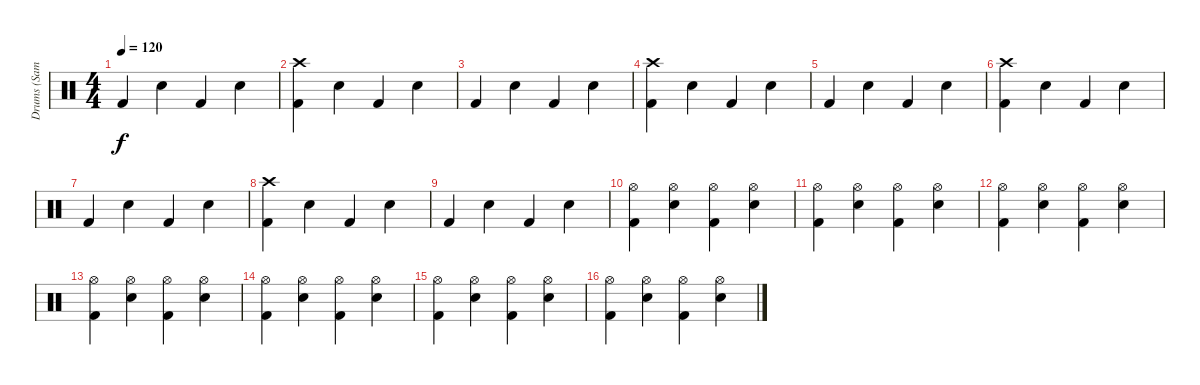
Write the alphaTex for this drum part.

\track ("Drums (Sami Karppinen)" "Drums (Sam") {instrument percussion}
\staff {score}
\articulation defaults
\ts (4 4)
\tempo 120
\clef neutral
\ks c "Kick (hit) 2".4{dy f} "Electric Snare (hit)".4 "Kick (hit) 2".4 "Electric Snare (hit)".4
|
("Crash high (hit)" "Kick (hit) 2").4 "Electric Snare (hit)".4 "Kick (hit) 2".4 "Electric Snare (hit)".4 |
"Kick (hit) 2".4 "Electric Snare (hit)".4 "Kick (hit) 2".4 "Electric Snare (hit)".4 |
("Crash high (hit)" "Kick (hit) 2").4 "Electric Snare (hit)".4 "Kick (hit) 2".4 "Electric Snare (hit)".4 |
"Kick (hit) 2".4 "Electric Snare (hit)".4 "Kick (hit) 2".4 "Electric Snare (hit)".4 |
("Crash high (hit)" "Kick (hit) 2").4 "Electric Snare (hit)".4 "Kick (hit) 2".4 "Electric Snare (hit)".4 |
"Kick (hit) 2".4 "Electric Snare (hit)".4 "Kick (hit) 2".4 "Electric Snare (hit)".4 |
("Crash high (hit)" "Kick (hit) 2").4 "Electric Snare (hit)".4 "Kick (hit) 2".4 "Electric Snare (hit)".4 |
"Kick (hit) 2".4 "Electric Snare (hit)".4 "Kick (hit) 2".4 "Electric Snare (hit)".4 |
("Hi-Hat (open)" "Kick (hit) 2").4 ("Hi-Hat (open)" "Electric Snare (hit)").4 ("Hi-Hat (open)" "Kick (hit) 2").4 ("Hi-Hat (open)" "Electric Snare (hit)").4 |
("Hi-Hat (open)" "Kick (hit) 2").4 ("Hi-Hat (open)" "Electric Snare (hit)").4 ("Hi-Hat (open)" "Kick (hit) 2").4 ("Hi-Hat (open)" "Electric Snare (hit)").4 |
("Hi-Hat (open)" "Kick (hit) 2").4 ("Hi-Hat (open)" "Electric Snare (hit)").4 ("Hi-Hat (open)" "Kick (hit) 2").4 ("Hi-Hat (open)" "Electric Snare (hit)").4 |
("Hi-Hat (open)" "Kick (hit) 2").4 ("Hi-Hat (open)" "Electric Snare (hit)").4 ("Hi-Hat (open)" "Kick (hit) 2").4 ("Hi-Hat (open)" "Electric Snare (hit)").4 |
("Hi-Hat (open)" "Kick (hit) 2").4 ("Hi-Hat (open)" "Electric Snare (hit)").4 ("Hi-Hat (open)" "Kick (hit) 2").4 ("Hi-Hat (open)" "Electric Snare (hit)").4 |
("Hi-Hat (open)" "Kick (hit) 2").4 ("Hi-Hat (open)" "Electric Snare (hit)").4 ("Hi-Hat (open)" "Kick (hit) 2").4 ("Hi-Hat (open)" "Electric Snare (hit)").4 |
("Hi-Hat (open)" "Kick (hit) 2").4 ("Hi-Hat (open)" "Electric Snare (hit)").4 ("Hi-Hat (open)" "Kick (hit) 2").4 ("Hi-Hat (open)" "Electric Snare (hit)").4
